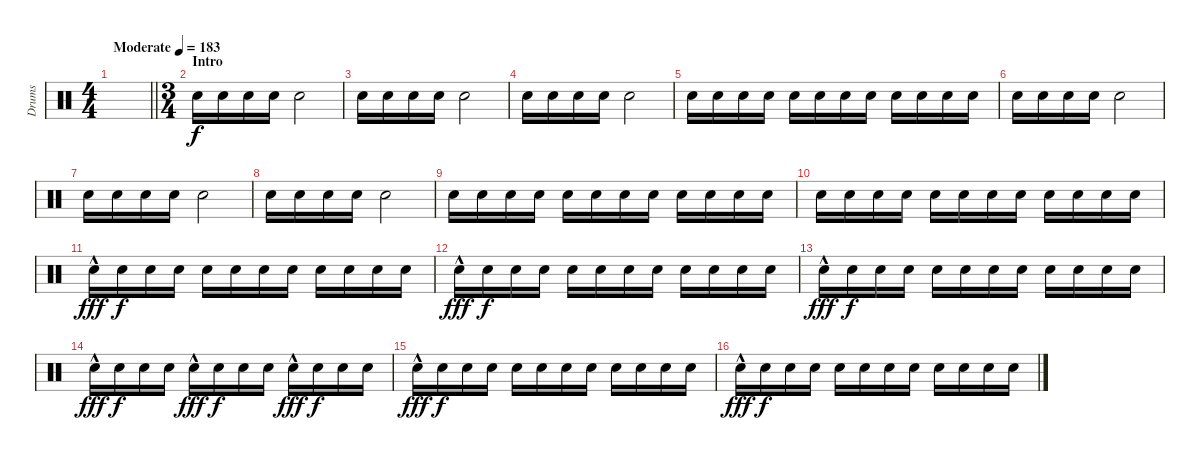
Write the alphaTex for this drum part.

\track ("Drums" "Drums") {instrument percussion}
\staff {score}
\articulation defaults
\ts (4 4)
\tempo (183 "Moderate")
\clef neutral
\barLineRight lightlight
\ks c
|
\ts (3 4)
\section ("" "Intro")
"Snare (hit) 2".16 "Snare (hit) 2".16 "Snare (hit) 2".16 "Snare (hit) 2".16 "Snare (hit) 2".2 |
"Snare (hit) 2".16 "Snare (hit) 2".16 "Snare (hit) 2".16 "Snare (hit) 2".16 "Snare (hit) 2".2 |
"Snare (hit) 2".16 "Snare (hit) 2".16 "Snare (hit) 2".16 "Snare (hit) 2".16 "Snare (hit) 2".2 |
"Snare (hit) 2".16 "Snare (hit) 2".16 "Snare (hit) 2".16 "Snare (hit) 2".16 "Snare (hit) 2".16 "Snare (hit) 2".16 "Snare (hit) 2".16 "Snare (hit) 2".16 "Snare (hit) 2".16 "Snare (hit) 2".16 "Snare (hit) 2".16 "Snare (hit) 2".16 |
"Snare (hit) 2".16 "Snare (hit) 2".16 "Snare (hit) 2".16 "Snare (hit) 2".16 "Snare (hit) 2".2 |
"Snare (hit) 2".16 "Snare (hit) 2".16 "Snare (hit) 2".16 "Snare (hit) 2".16 "Snare (hit) 2".2 |
"Snare (hit) 2".16 "Snare (hit) 2".16 "Snare (hit) 2".16 "Snare (hit) 2".16 "Snare (hit) 2".2 |
"Snare (hit) 2".16 "Snare (hit) 2".16 "Snare (hit) 2".16 "Snare (hit) 2".16 "Snare (hit) 2".16 "Snare (hit) 2".16 "Snare (hit) 2".16 "Snare (hit) 2".16 "Snare (hit) 2".16 "Snare (hit) 2".16 "Snare (hit) 2".16 "Snare (hit) 2".16 |
"Snare (hit) 2".16 "Snare (hit) 2".16 "Snare (hit) 2".16 "Snare (hit) 2".16 "Snare (hit) 2".16 "Snare (hit) 2".16 "Snare (hit) 2".16 "Snare (hit) 2".16 "Snare (hit) 2".16 "Snare (hit) 2".16 "Snare (hit) 2".16 "Snare (hit) 2".16 |
"Snare (hit) 2"{hac}.16{dy fff} "Snare (hit) 2".16{dy f} "Snare (hit) 2".16 "Snare (hit) 2".16 "Snare (hit) 2".16 "Snare (hit) 2".16 "Snare (hit) 2".16 "Snare (hit) 2".16 "Snare (hit) 2".16 "Snare (hit) 2".16 "Snare (hit) 2".16 "Snare (hit) 2".16 |
"Snare (hit) 2"{hac}.16{dy fff} "Snare (hit) 2".16{dy f} "Snare (hit) 2".16 "Snare (hit) 2".16 "Snare (hit) 2".16 "Snare (hit) 2".16 "Snare (hit) 2".16 "Snare (hit) 2".16 "Snare (hit) 2".16 "Snare (hit) 2".16 "Snare (hit) 2".16 "Snare (hit) 2".16 |
"Snare (hit) 2"{hac}.16{dy fff} "Snare (hit) 2".16{dy f} "Snare (hit) 2".16 "Snare (hit) 2".16 "Snare (hit) 2".16 "Snare (hit) 2".16 "Snare (hit) 2".16 "Snare (hit) 2".16 "Snare (hit) 2".16 "Snare (hit) 2".16 "Snare (hit) 2".16 "Snare (hit) 2".16 |
"Snare (hit) 2"{hac}.16{dy fff} "Snare (hit) 2".16{dy f} "Snare (hit) 2".16 "Snare (hit) 2".16 "Snare (hit) 2"{hac}.16{dy fff} "Snare (hit) 2".16{dy f} "Snare (hit) 2".16 "Snare (hit) 2".16 "Snare (hit) 2"{hac}.16{dy fff} "Snare (hit) 2".16{dy f} "Snare (hit) 2".16 "Snare (hit) 2".16 |
"Snare (hit) 2"{hac}.16{dy fff} "Snare (hit) 2".16{dy f} "Snare (hit) 2".16 "Snare (hit) 2".16 "Snare (hit) 2".16 "Snare (hit) 2".16 "Snare (hit) 2".16 "Snare (hit) 2".16 "Snare (hit) 2".16 "Snare (hit) 2".16 "Snare (hit) 2".16 "Snare (hit) 2".16 |
"Snare (hit) 2"{hac}.16{dy fff} "Snare (hit) 2".16{dy f} "Snare (hit) 2".16 "Snare (hit) 2".16 "Snare (hit) 2".16 "Snare (hit) 2".16 "Snare (hit) 2".16 "Snare (hit) 2".16 "Snare (hit) 2".16 "Snare (hit) 2".16 "Snare (hit) 2".16 "Snare (hit) 2".16
